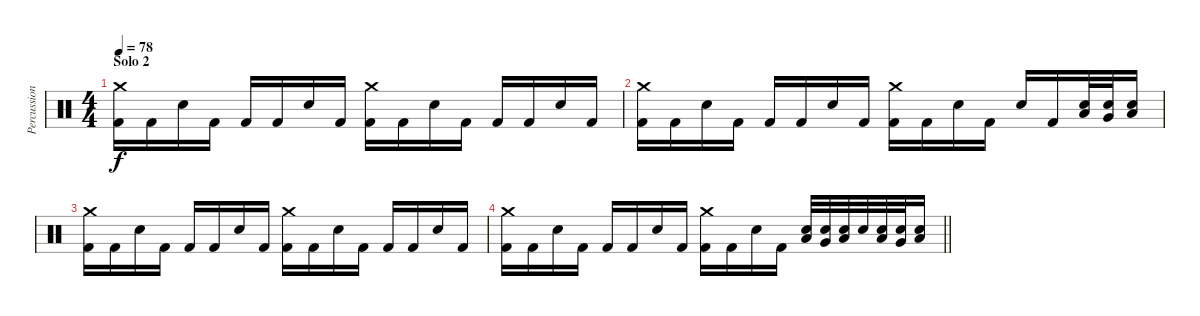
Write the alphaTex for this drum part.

\track ("Percussion" "Percussion") {instrument percussion}
\staff {score}
\articulation defaults
\ts (4 4)
\section ("" "Solo 2")
\tempo 78
\clef neutral
\ks c
("Crash medium (hit)" "Kick (hit) 2").16{dy f} "Kick (hit) 2".16 "Snare (hit) 2".16 "Kick (hit) 2".16 "Kick (hit) 2".16 "Kick (hit) 2".16 "Snare (hit) 2".16 "Kick (hit) 2".16 ("Crash medium (hit)" "Kick (hit) 2").16 "Kick (hit) 2".16 "Snare (hit) 2".16 "Kick (hit) 2".16 "Kick (hit) 2".16 "Kick (hit) 2".16 "Snare (hit) 2".16 "Kick (hit) 2".16 |
("Crash medium (hit)" "Kick (hit) 2").16 "Kick (hit) 2".16 "Snare (hit) 2".16 "Kick (hit) 2".16 "Kick (hit) 2".16 "Kick (hit) 2".16 "Snare (hit) 2".16 "Kick (hit) 2".16 ("Crash medium (hit)" "Kick (hit) 2").16 "Kick (hit) 2".16 "Snare (hit) 2".16 "Kick (hit) 2".16 "Snare (hit) 2".16 "Kick (hit) 2".16 ("Snare (hit) 2" "Low Tom (hit)").32 ("Snare (hit) 2" "Very Low Tom (hit)").32 ("Snare (hit) 2" "Low Floor Tom (hit)").16 |
("Crash medium (hit)" "Kick (hit) 2").16 "Kick (hit) 2".16 "Snare (hit) 2".16 "Kick (hit) 2".16 "Kick (hit) 2".16 "Kick (hit) 2".16 "Snare (hit) 2".16 "Kick (hit) 2".16 ("Crash medium (hit)" "Kick (hit) 2").16 "Kick (hit) 2".16 "Snare (hit) 2".16 "Kick (hit) 2".16 "Kick (hit) 2".16 "Kick (hit) 2".16 "Snare (hit) 2".16 "Kick (hit) 2".16 |
\barLineRight lightlight
("Crash medium (hit)" "Kick (hit) 2").16 "Kick (hit) 2".16 "Snare (hit) 2".16 "Kick (hit) 2".16 "Kick (hit) 2".16 "Kick (hit) 2".16 "Snare (hit) 2".16 "Kick (hit) 2".16 ("Crash medium (hit)" "Kick (hit) 2").16 "Kick (hit) 2".16 "Snare (hit) 2".16 "Kick (hit) 2".16 ("Snare (hit) 2" "Low Tom (hit)").32 ("Snare (hit) 2" "Very Low Tom (hit)").32 ("Snare (hit) 2" "Low Floor Tom (hit)").32 "Snare (hit) 2".32 ("Snare (hit) 2" "Low Tom (hit)").32 ("Snare (hit) 2" "Very Low Tom (hit)").32 ("Snare (hit) 2" "Low Floor Tom (hit)").16
